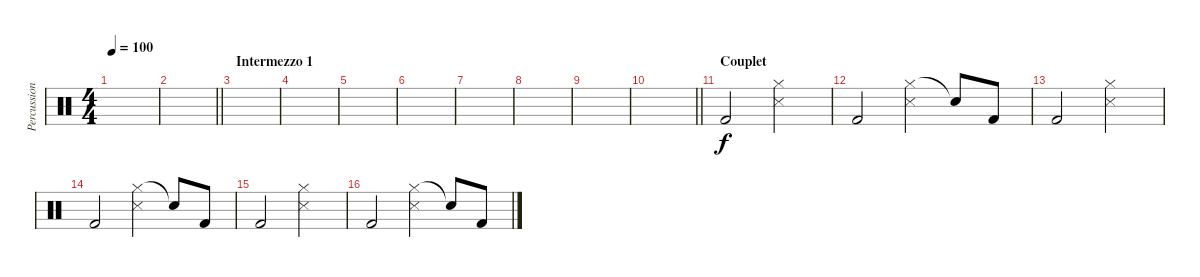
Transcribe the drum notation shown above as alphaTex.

\track ("Percussion" "Percussion") {instrument percussion}
\staff {score}
\articulation defaults
\ts (4 4)
\tempo 100
\clef neutral
\ks c
|
\barLineRight lightlight
|
\section ("" "Intermezzo 1")
|
|
|
|
|
|
|
\barLineRight lightlight
|
\section ("" "Couplet")
"Kick (hit) 2".2 ("Hi-Hat (closed)" "Snare (side stick) 3").2 |
"Kick (hit) 2".2 ("Hi-Hat (closed)" "Snare (side stick) 3").4 "Snare (hit)"{t}.8 "Kick (hit) 2".8 |
"Kick (hit) 2".2 ("Hi-Hat (closed)" "Snare (side stick) 3").2 |
"Kick (hit) 2".2 ("Hi-Hat (closed)" "Snare (side stick) 3").4 "Snare (hit)"{t}.8 "Kick (hit) 2".8 |
"Kick (hit) 2".2 ("Hi-Hat (closed)" "Snare (side stick) 3").2 |
"Kick (hit) 2".2 ("Hi-Hat (closed)" "Snare (side stick) 3").4 "Snare (hit)"{t}.8 "Kick (hit) 2".8
